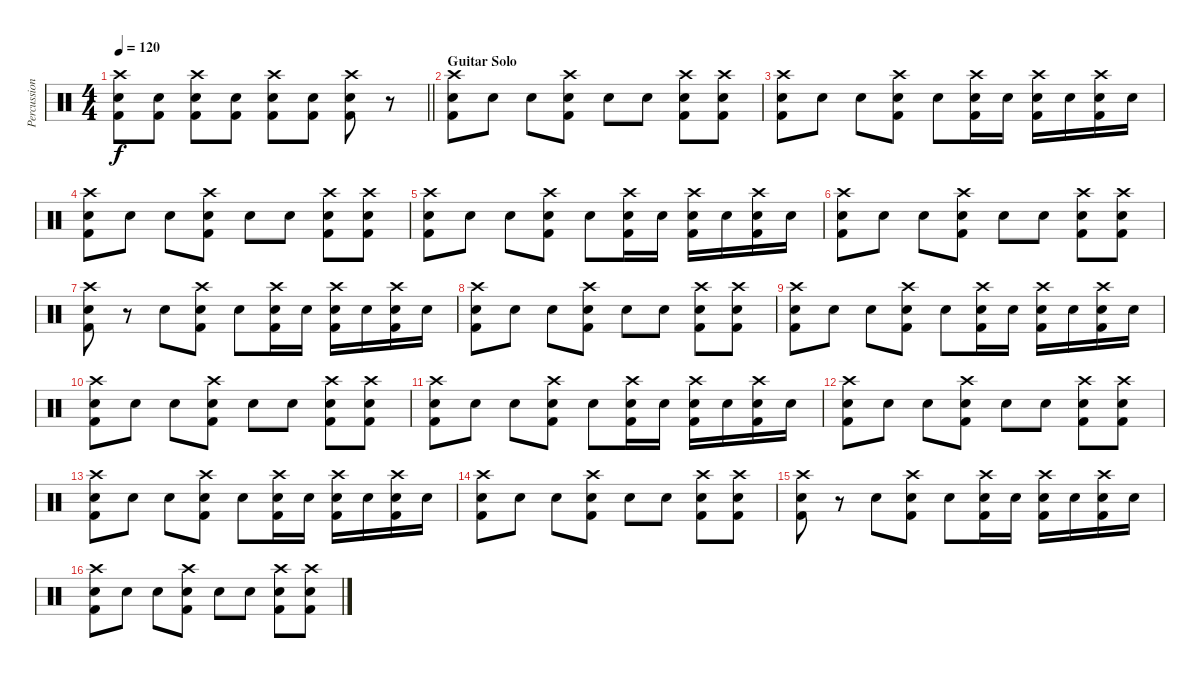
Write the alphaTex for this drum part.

\track ("Percussion" "Percussion") {instrument percussion}
\staff {score}
\articulation defaults
\ts (4 4)
\tempo 120
\clef neutral
\barLineRight lightlight
\ks c
("Crash high (hit)" "Electric Snare (hit)" "Kick (hit) 2").8{dy f} ("Electric Snare (hit)" "Kick (hit) 2").8 ("Crash high (hit)" "Electric Snare (hit)" "Kick (hit) 2").8 ("Electric Snare (hit)" "Kick (hit) 2").8 ("Crash high (hit)" "Electric Snare (hit)" "Kick (hit) 2").8 ("Electric Snare (hit)" "Kick (hit) 2").8 ("Crash high (hit)" "Electric Snare (hit)" "Kick (hit) 2").8 r.8 |
\section ("" "Guitar Solo")
("Crash high (hit)" "Electric Snare (hit)" "Kick (hit) 2").8 "Electric Snare (hit)".8 "Electric Snare (hit)".8 ("Crash high (hit)" "Electric Snare (hit)" "Kick (hit) 2").8 "Electric Snare (hit)".8 "Electric Snare (hit)".8 ("Crash high (hit)" "Electric Snare (hit)" "Kick (hit) 2").8 ("Crash high (hit)" "Electric Snare (hit)" "Kick (hit) 2").8 |
("Crash high (hit)" "Electric Snare (hit)" "Kick (hit) 2").8 "Electric Snare (hit)".8 "Electric Snare (hit)".8 ("Crash high (hit)" "Electric Snare (hit)" "Kick (hit) 2").8 "Electric Snare (hit)".8 ("Crash high (hit)" "Electric Snare (hit)" "Kick (hit) 2").16 "Electric Snare (hit)".16 ("Crash high (hit)" "Electric Snare (hit)" "Kick (hit) 2").16 "Electric Snare (hit)".16 ("Crash high (hit)" "Electric Snare (hit)" "Kick (hit) 2").16 "Electric Snare (hit)".16 |
("Crash high (hit)" "Electric Snare (hit)" "Kick (hit) 2").8 "Electric Snare (hit)".8 "Electric Snare (hit)".8 ("Crash high (hit)" "Electric Snare (hit)" "Kick (hit) 2").8 "Electric Snare (hit)".8 "Electric Snare (hit)".8 ("Crash high (hit)" "Electric Snare (hit)" "Kick (hit) 2").8 ("Crash high (hit)" "Electric Snare (hit)" "Kick (hit) 2").8 |
("Crash high (hit)" "Electric Snare (hit)" "Kick (hit) 2").8 "Electric Snare (hit)".8 "Electric Snare (hit)".8 ("Crash high (hit)" "Electric Snare (hit)" "Kick (hit) 2").8 "Electric Snare (hit)".8 ("Crash high (hit)" "Electric Snare (hit)" "Kick (hit) 2").16 "Electric Snare (hit)".16 ("Crash high (hit)" "Electric Snare (hit)" "Kick (hit) 2").16 "Electric Snare (hit)".16 ("Crash high (hit)" "Electric Snare (hit)" "Kick (hit) 2").16 "Electric Snare (hit)".16 |
("Crash high (hit)" "Electric Snare (hit)" "Kick (hit) 2").8 "Electric Snare (hit)".8 "Electric Snare (hit)".8 ("Crash high (hit)" "Electric Snare (hit)" "Kick (hit) 2").8 "Electric Snare (hit)".8 "Electric Snare (hit)".8 ("Crash high (hit)" "Electric Snare (hit)" "Kick (hit) 2").8 ("Crash high (hit)" "Electric Snare (hit)" "Kick (hit) 2").8 |
("Crash high (hit)" "Electric Snare (hit)" "Kick (hit) 2").8 r.8 "Electric Snare (hit)".8 ("Crash high (hit)" "Electric Snare (hit)" "Kick (hit) 2").8 "Electric Snare (hit)".8 ("Crash high (hit)" "Electric Snare (hit)" "Kick (hit) 2").16 "Electric Snare (hit)".16 ("Crash high (hit)" "Electric Snare (hit)" "Kick (hit) 2").16 "Electric Snare (hit)".16 ("Crash high (hit)" "Electric Snare (hit)" "Kick (hit) 2").16 "Electric Snare (hit)".16 |
("Crash high (hit)" "Electric Snare (hit)" "Kick (hit) 2").8 "Electric Snare (hit)".8 "Electric Snare (hit)".8 ("Crash high (hit)" "Electric Snare (hit)" "Kick (hit) 2").8 "Electric Snare (hit)".8 "Electric Snare (hit)".8 ("Crash high (hit)" "Electric Snare (hit)" "Kick (hit) 2").8 ("Crash high (hit)" "Electric Snare (hit)" "Kick (hit) 2").8 |
("Crash high (hit)" "Electric Snare (hit)" "Kick (hit) 2").8 "Electric Snare (hit)".8 "Electric Snare (hit)".8 ("Crash high (hit)" "Electric Snare (hit)" "Kick (hit) 2").8 "Electric Snare (hit)".8 ("Crash high (hit)" "Electric Snare (hit)" "Kick (hit) 2").16 "Electric Snare (hit)".16 ("Crash high (hit)" "Electric Snare (hit)" "Kick (hit) 2").16 "Electric Snare (hit)".16 ("Crash high (hit)" "Electric Snare (hit)" "Kick (hit) 2").16 "Electric Snare (hit)".16 |
("Crash high (hit)" "Electric Snare (hit)" "Kick (hit) 2").8 "Electric Snare (hit)".8 "Electric Snare (hit)".8 ("Crash high (hit)" "Electric Snare (hit)" "Kick (hit) 2").8 "Electric Snare (hit)".8 "Electric Snare (hit)".8 ("Crash high (hit)" "Electric Snare (hit)" "Kick (hit) 2").8 ("Crash high (hit)" "Electric Snare (hit)" "Kick (hit) 2").8 |
("Crash high (hit)" "Electric Snare (hit)" "Kick (hit) 2").8 "Electric Snare (hit)".8 "Electric Snare (hit)".8 ("Crash high (hit)" "Electric Snare (hit)" "Kick (hit) 2").8 "Electric Snare (hit)".8 ("Crash high (hit)" "Electric Snare (hit)" "Kick (hit) 2").16 "Electric Snare (hit)".16 ("Crash high (hit)" "Electric Snare (hit)" "Kick (hit) 2").16 "Electric Snare (hit)".16 ("Crash high (hit)" "Electric Snare (hit)" "Kick (hit) 2").16 "Electric Snare (hit)".16 |
("Crash high (hit)" "Electric Snare (hit)" "Kick (hit) 2").8 "Electric Snare (hit)".8 "Electric Snare (hit)".8 ("Crash high (hit)" "Electric Snare (hit)" "Kick (hit) 2").8 "Electric Snare (hit)".8 "Electric Snare (hit)".8 ("Crash high (hit)" "Electric Snare (hit)" "Kick (hit) 2").8 ("Crash high (hit)" "Electric Snare (hit)" "Kick (hit) 2").8 |
("Crash high (hit)" "Electric Snare (hit)" "Kick (hit) 2").8 "Electric Snare (hit)".8 "Electric Snare (hit)".8 ("Crash high (hit)" "Electric Snare (hit)" "Kick (hit) 2").8 "Electric Snare (hit)".8 ("Crash high (hit)" "Electric Snare (hit)" "Kick (hit) 2").16 "Electric Snare (hit)".16 ("Crash high (hit)" "Electric Snare (hit)" "Kick (hit) 2").16 "Electric Snare (hit)".16 ("Crash high (hit)" "Electric Snare (hit)" "Kick (hit) 2").16 "Electric Snare (hit)".16 |
("Crash high (hit)" "Electric Snare (hit)" "Kick (hit) 2").8 "Electric Snare (hit)".8 "Electric Snare (hit)".8 ("Crash high (hit)" "Electric Snare (hit)" "Kick (hit) 2").8 "Electric Snare (hit)".8 "Electric Snare (hit)".8 ("Crash high (hit)" "Electric Snare (hit)" "Kick (hit) 2").8 ("Crash high (hit)" "Electric Snare (hit)" "Kick (hit) 2").8 |
("Crash high (hit)" "Electric Snare (hit)" "Kick (hit) 2").8 r.8 "Electric Snare (hit)".8 ("Crash high (hit)" "Electric Snare (hit)" "Kick (hit) 2").8 "Electric Snare (hit)".8 ("Crash high (hit)" "Electric Snare (hit)" "Kick (hit) 2").16 "Electric Snare (hit)".16 ("Crash high (hit)" "Electric Snare (hit)" "Kick (hit) 2").16 "Electric Snare (hit)".16 ("Crash high (hit)" "Electric Snare (hit)" "Kick (hit) 2").16 "Electric Snare (hit)".16 |
("Crash high (hit)" "Electric Snare (hit)" "Kick (hit) 2").8 "Electric Snare (hit)".8 "Electric Snare (hit)".8 ("Crash high (hit)" "Electric Snare (hit)" "Kick (hit) 2").8 "Electric Snare (hit)".8 "Electric Snare (hit)".8 ("Crash high (hit)" "Electric Snare (hit)" "Kick (hit) 2").8 ("Crash high (hit)" "Electric Snare (hit)" "Kick (hit) 2").8
